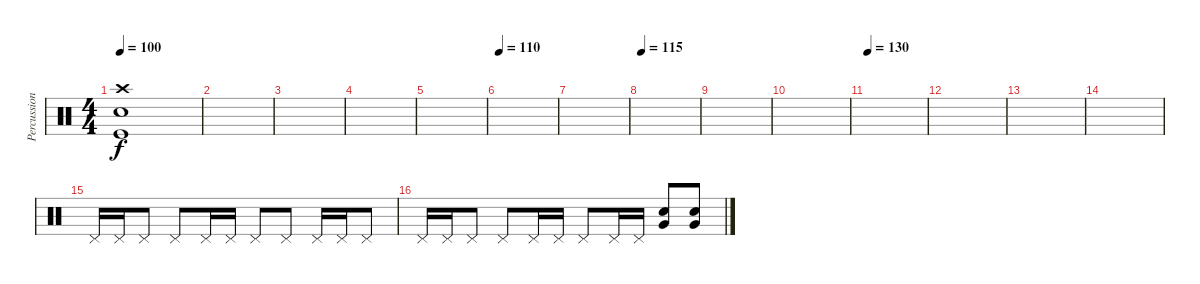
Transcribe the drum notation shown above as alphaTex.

\track ("Percussions" "Percussion") {instrument percussion}
\staff {score}
\articulation defaults
\ts (4 4)
\tempo 100
\clef neutral
\ks c
("Electric Snare (hit)" "Crash high (hit)" "Kick (hit)").1{dy f} |
|
|
|
|
\tempo 110
|
|
\tempo 115
|
|
|
\tempo 130
|
|
|
|
"Pedal Hi-Hat (hit)".16 "Pedal Hi-Hat (hit)".16 "Pedal Hi-Hat (hit)".8 "Pedal Hi-Hat (hit)".8 "Pedal Hi-Hat (hit)".16 "Pedal Hi-Hat (hit)".16 "Pedal Hi-Hat (hit)".8 "Pedal Hi-Hat (hit)".8 "Pedal Hi-Hat (hit)".16 "Pedal Hi-Hat (hit)".16 "Pedal Hi-Hat (hit)".8 |
"Pedal Hi-Hat (hit)".16 "Pedal Hi-Hat (hit)".16 "Pedal Hi-Hat (hit)".8 "Pedal Hi-Hat (hit)".8 "Pedal Hi-Hat (hit)".16 "Pedal Hi-Hat (hit)".16 "Pedal Hi-Hat (hit)".8 "Pedal Hi-Hat (hit)".16 "Pedal Hi-Hat (hit)".16 ("Electric Snare (hit)" "Very Low Tom (hit)").8 ("Electric Snare (hit)" "Very Low Tom (hit)").8
